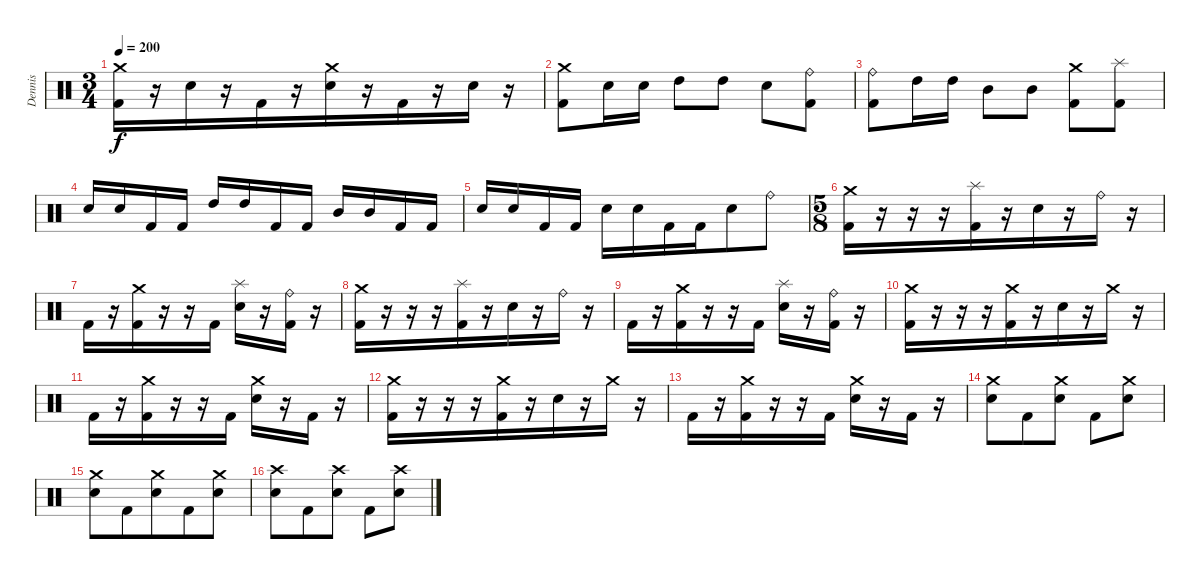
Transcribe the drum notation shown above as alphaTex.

\track ("Dennis" "Dennis") {instrument percussion}
\staff {score}
\articulation defaults
\ts (3 4)
\tempo 200
\clef neutral
\ks c
("Crash medium (hit)" "Kick (hit) 2").16{dy f} r.16 "Electric Snare (hit)".16{beam merge} r.16{beam merge} "Kick (hit) 2".16{beam merge} r.16 ("Crash medium (hit)" "Electric Snare (hit)").16{beam merge} r.16 "Kick (hit) 2".16 r.16 "Electric Snare (hit)".16 r.16 |
("Crash medium (hit)" "Kick (hit) 2").8 "Electric Snare (hit)".16 "Electric Snare (hit)".16 "High Tom (hit)".8{beam merge} "High Tom (hit)".8 "Electric Snare (hit)".8 ("Ride (bell)" "Kick (hit) 2").8 |
("Ride (bell)" "Kick (hit) 2").8{beam merge} "High Tom (hit)".16 "High Tom (hit)".16 "Mid Tom (hit)".8{beam merge} "Mid Tom (hit)".8 ("Crash medium (hit)" "Kick (hit) 2").8{beam merge} ("Splash (hit)" "Kick (hit) 2").8 |
"Electric Snare (hit)".16 "Electric Snare (hit)".16 "Kick (hit) 2".16 "Kick (hit) 2".16 "High Tom (hit)".16{beam merge} "High Tom (hit)".16{beam merge} "Kick (hit) 2".16{beam merge} "Kick (hit) 2".16 "Mid Tom (hit)".16{beam merge} "Mid Tom (hit)".16 "Kick (hit) 2".16 "Kick (hit) 2".16 |
"Electric Snare (hit)".16{beam merge} "Electric Snare (hit)".16 "Kick (hit) 2".16 "Kick (hit) 2".16 "Electric Snare (hit)".16 "Electric Snare (hit)".16 "Kick (hit) 2".16{beam merge} "Kick (hit) 2".16{beam merge} "Electric Snare (hit)".8 "Ride (bell)".8 |
\ts (5 8)
("Crash medium (hit)" "Kick (hit) 2").16{beam merge} r.16 r.16{beam merge} r.16{beam merge} ("Splash (hit)" "Kick (hit) 2").16{beam merge} r.16{beam merge} "Electric Snare (hit)".16 r.16 "Ride (bell)".16 r.16 |
"Kick (hit) 2".16{beam merge} r.16 ("Crash medium (hit)" "Kick (hit) 2").16 r.16{beam merge} r.16 "Kick (hit) 2".16 ("Splash (hit)" "Electric Snare (hit)").16 r.16 ("Ride (bell)" "Kick (hit) 2").16{beam merge} r.16 |
("Crash medium (hit)" "Kick (hit) 2").16{beam merge} r.16 r.16{beam merge} r.16{beam merge} ("Splash (hit)" "Kick (hit) 2").16{beam merge} r.16{beam merge} "Electric Snare (hit)".16 r.16 "Ride (bell)".16 r.16 |
"Kick (hit) 2".16{beam merge} r.16 ("Crash medium (hit)" "Kick (hit) 2").16 r.16{beam merge} r.16 "Kick (hit) 2".16 ("Splash (hit)" "Electric Snare (hit)").16 r.16 ("Ride (bell)" "Kick (hit) 2").16{beam merge} r.16 |
("Crash medium (hit)" "Kick (hit) 2").16{beam merge} r.16 r.16{beam merge} r.16{beam merge} ("Crash medium (hit)" "Kick (hit) 2").16{beam merge} r.16{beam merge} "Electric Snare (hit)".16 r.16 "Crash medium (hit)".16 r.16 |
"Kick (hit) 2".16{beam merge} r.16 ("Crash medium (hit)" "Kick (hit) 2").16 r.16{beam merge} r.16 "Kick (hit) 2".16 ("Crash medium (hit)" "Electric Snare (hit)").16 r.16 "Kick (hit) 2".16{beam merge} r.16 |
("Crash medium (hit)" "Kick (hit) 2").16{beam merge} r.16 r.16{beam merge} r.16{beam merge} ("Crash medium (hit)" "Kick (hit) 2").16{beam merge} r.16{beam merge} "Electric Snare (hit)".16 r.16 "Crash medium (hit)".16 r.16 |
"Kick (hit) 2".16{beam merge} r.16 ("Crash medium (hit)" "Kick (hit) 2").16 r.16{beam merge} r.16 "Kick (hit) 2".16 ("Crash medium (hit)" "Electric Snare (hit)").16 r.16 "Kick (hit) 2".16{beam merge} r.16 |
("Crash medium (hit)" "Electric Snare (hit)").8{beam merge} "Kick (hit) 2".8 ("Crash medium (hit)" "Electric Snare (hit)").8 "Kick (hit) 2".8{beam merge} ("Crash medium (hit)" "Electric Snare (hit)").8 |
("Crash medium (hit)" "Electric Snare (hit)").8{beam merge} "Kick (hit) 2".8{beam merge} ("Crash medium (hit)" "Electric Snare (hit)").8{beam merge} "Kick (hit) 2".8 ("Crash medium (hit)" "Electric Snare (hit)").8 |
("Crash high (hit)" "Electric Snare (hit)").8{beam merge} "Kick (hit) 2".8 ("Crash high (hit)" "Electric Snare (hit)").8 "Kick (hit) 2".8{beam merge} ("Crash high (hit)" "Electric Snare (hit)").8
